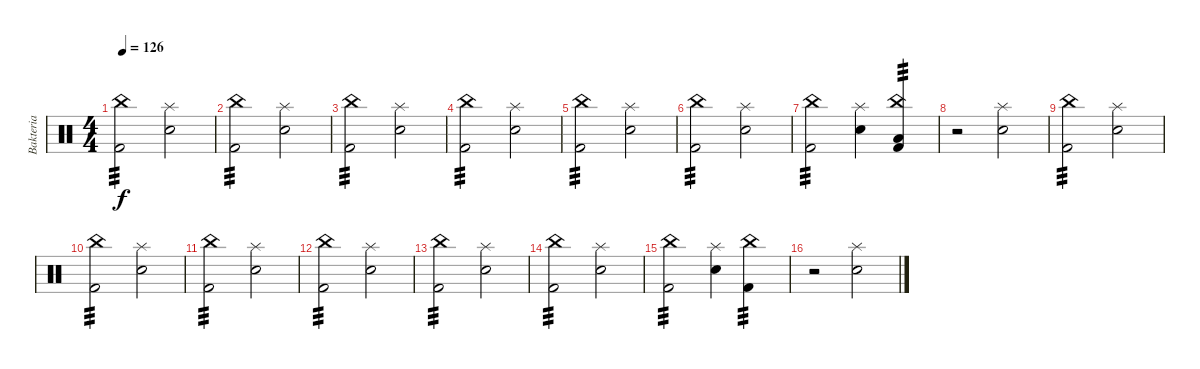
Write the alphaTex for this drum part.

\track ("Bakteria" "Bakteria") {instrument percussion}
\staff {score}
\articulation defaults
\ts (4 4)
\tempo 126
\clef neutral
\ks c
("Kick (hit) 2" "China (hit)").2{tp 3 dy f volume 0} ("Splash (hit)" "Snare (hit) 2").2{volume 13} |
("Kick (hit) 2" "China (hit)").2{tp 3 volume 0} ("Splash (hit)" "Snare (hit) 2").2{volume 13} |
("Kick (hit) 2" "China (hit)").2{tp 3 volume 0} ("Splash (hit)" "Snare (hit) 2").2{volume 13} |
("Kick (hit) 2" "China (hit)").2{tp 3 volume 0} ("Splash (hit)" "Snare (hit) 2").2{volume 13} |
("Kick (hit) 2" "China (hit)").2{tp 3 volume 0} ("Splash (hit)" "Snare (hit) 2").2{volume 13} |
("Kick (hit) 2" "China (hit)").2{tp 3 volume 0} ("Splash (hit)" "Snare (hit) 2").2{volume 13} |
("Kick (hit) 2" "China (hit)").2{tp 3 volume 0} ("Splash (hit)" "Snare (hit) 2").4{volume 13} ("Low Floor Tom (hit)" "Kick (hit) 2" "China (hit)").4{tp 3 volume 0} |
r.2{volume 0} ("Splash (hit)" "Snare (hit) 2").2{volume 13} |
("Kick (hit) 2" "China (hit)").2{tp 3 volume 0} ("Splash (hit)" "Snare (hit) 2").2{volume 13} |
("Kick (hit) 2" "China (hit)").2{tp 3 volume 0} ("Splash (hit)" "Snare (hit) 2").2{volume 13} |
("Kick (hit) 2" "China (hit)").2{tp 3 volume 0} ("Splash (hit)" "Snare (hit) 2").2{volume 13} |
("Kick (hit) 2" "China (hit)").2{tp 3 volume 0} ("Splash (hit)" "Snare (hit) 2").2{volume 13} |
("Kick (hit) 2" "China (hit)").2{tp 3 volume 0} ("Splash (hit)" "Snare (hit) 2").2{volume 13} |
("Kick (hit) 2" "China (hit)").2{tp 3 volume 0} ("Splash (hit)" "Snare (hit) 2").2{volume 13} |
("Kick (hit) 2" "China (hit)").2{tp 3 volume 0} ("Splash (hit)" "Snare (hit) 2").4{volume 13} ("Kick (hit) 2" "China (hit)").4{tp 3 volume 0} |
r.2{volume 0} ("Splash (hit)" "Snare (hit) 2").2{volume 13}
